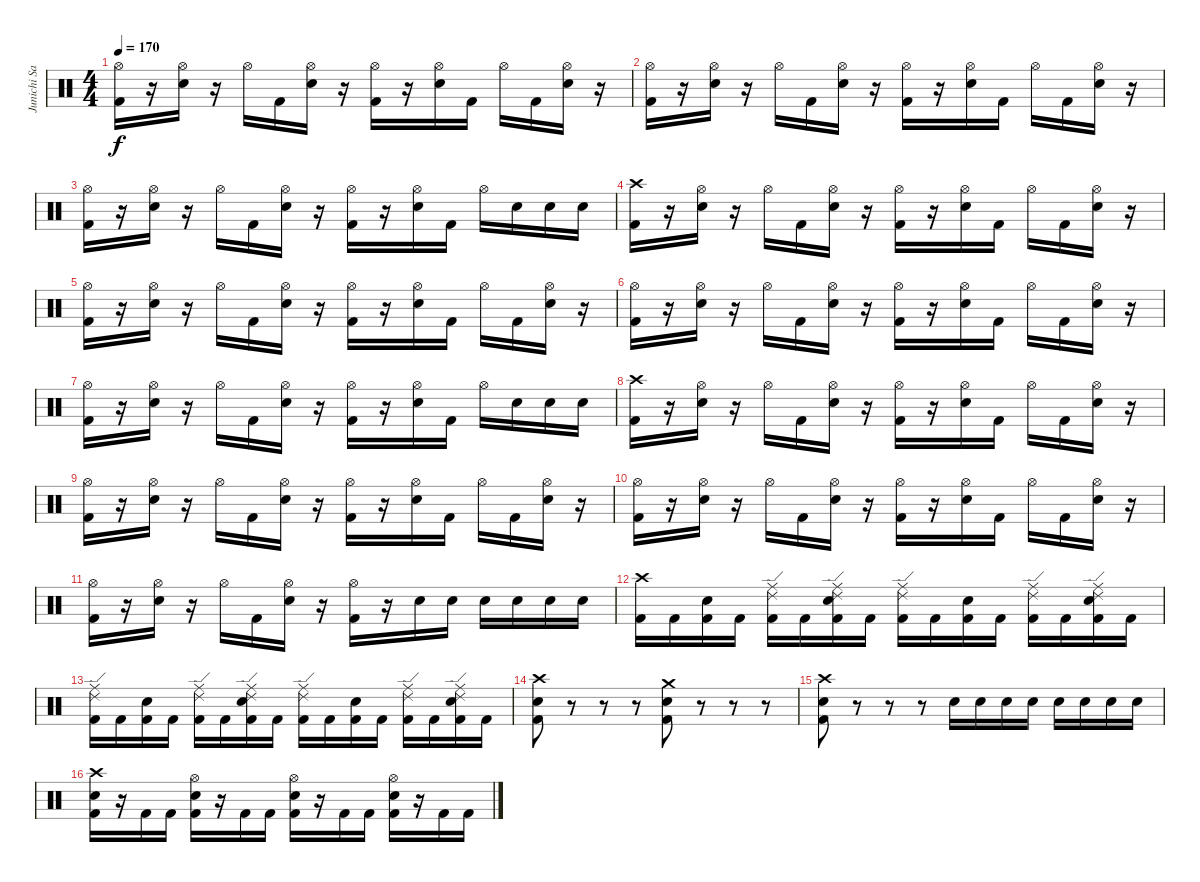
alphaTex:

\track ("Junichi Sato" "Junichi Sa") {instrument percussion}
\staff {score}
\articulation defaults
\ts (4 4)
\tempo 170
\clef neutral
\ks c
("Hi-Hat (open)" "Kick (hit) 2").16{dy f} r.16 ("Hi-Hat (open)" "Electric Snare (hit)").16 r.16 "Hi-Hat (open)".16 "Kick (hit) 2".16 ("Hi-Hat (open)" "Electric Snare (hit)").16 r.16 ("Hi-Hat (open)" "Kick (hit) 2").16 r.16 ("Hi-Hat (open)" "Electric Snare (hit)").16 "Kick (hit) 2".16 "Hi-Hat (open)".16 "Kick (hit) 2".16 ("Hi-Hat (open)" "Electric Snare (hit)").16 r.16 |
("Hi-Hat (open)" "Kick (hit) 2").16 r.16 ("Hi-Hat (open)" "Electric Snare (hit)").16 r.16 "Hi-Hat (open)".16 "Kick (hit) 2".16 ("Hi-Hat (open)" "Electric Snare (hit)").16 r.16 ("Hi-Hat (open)" "Kick (hit) 2").16 r.16 ("Hi-Hat (open)" "Electric Snare (hit)").16 "Kick (hit) 2".16 "Hi-Hat (open)".16 "Kick (hit) 2".16 ("Hi-Hat (open)" "Electric Snare (hit)").16 r.16 |
("Hi-Hat (open)" "Kick (hit) 2").16 r.16 ("Hi-Hat (open)" "Electric Snare (hit)").16 r.16 "Hi-Hat (open)".16 "Kick (hit) 2".16 ("Hi-Hat (open)" "Electric Snare (hit)").16 r.16 ("Hi-Hat (open)" "Kick (hit) 2").16 r.16 ("Hi-Hat (open)" "Electric Snare (hit)").16 "Kick (hit) 2".16 "Hi-Hat (open)".16 "Electric Snare (hit)".16 "Electric Snare (hit)".16 "Electric Snare (hit)".16 |
("Crash high (hit)" "Kick (hit) 2").16 r.16 ("Hi-Hat (open)" "Electric Snare (hit)").16 r.16 "Hi-Hat (open)".16 "Kick (hit) 2".16 ("Hi-Hat (open)" "Electric Snare (hit)").16 r.16 ("Hi-Hat (open)" "Kick (hit) 2").16 r.16 ("Hi-Hat (open)" "Electric Snare (hit)").16 "Kick (hit) 2".16 "Hi-Hat (open)".16 "Kick (hit) 2".16 ("Hi-Hat (open)" "Electric Snare (hit)").16 r.16 |
("Hi-Hat (open)" "Kick (hit) 2").16 r.16 ("Hi-Hat (open)" "Electric Snare (hit)").16 r.16 "Hi-Hat (open)".16 "Kick (hit) 2".16 ("Hi-Hat (open)" "Electric Snare (hit)").16 r.16 ("Hi-Hat (open)" "Kick (hit) 2").16 r.16 ("Hi-Hat (open)" "Electric Snare (hit)").16 "Kick (hit) 2".16 "Hi-Hat (open)".16 "Kick (hit) 2".16 ("Hi-Hat (open)" "Electric Snare (hit)").16 r.16 |
("Hi-Hat (open)" "Kick (hit) 2").16 r.16 ("Hi-Hat (open)" "Electric Snare (hit)").16 r.16 "Hi-Hat (open)".16 "Kick (hit) 2".16 ("Hi-Hat (open)" "Electric Snare (hit)").16 r.16 ("Hi-Hat (open)" "Kick (hit) 2").16 r.16 ("Hi-Hat (open)" "Electric Snare (hit)").16 "Kick (hit) 2".16 "Hi-Hat (open)".16 "Kick (hit) 2".16 ("Hi-Hat (open)" "Electric Snare (hit)").16 r.16 |
("Hi-Hat (open)" "Kick (hit) 2").16 r.16 ("Hi-Hat (open)" "Electric Snare (hit)").16 r.16 "Hi-Hat (open)".16 "Kick (hit) 2".16 ("Hi-Hat (open)" "Electric Snare (hit)").16 r.16 ("Hi-Hat (open)" "Kick (hit) 2").16 r.16 ("Hi-Hat (open)" "Electric Snare (hit)").16 "Kick (hit) 2".16 "Hi-Hat (open)".16 "Electric Snare (hit)".16 "Electric Snare (hit)".16 "Electric Snare (hit)".16 |
("Crash high (hit)" "Kick (hit) 2").16 r.16 ("Hi-Hat (open)" "Electric Snare (hit)").16 r.16 "Hi-Hat (open)".16 "Kick (hit) 2".16 ("Hi-Hat (open)" "Electric Snare (hit)").16 r.16 ("Hi-Hat (open)" "Kick (hit) 2").16 r.16 ("Hi-Hat (open)" "Electric Snare (hit)").16 "Kick (hit) 2".16 "Hi-Hat (open)".16 "Kick (hit) 2".16 ("Hi-Hat (open)" "Electric Snare (hit)").16 r.16 |
("Hi-Hat (open)" "Kick (hit) 2").16 r.16 ("Hi-Hat (open)" "Electric Snare (hit)").16 r.16 "Hi-Hat (open)".16 "Kick (hit) 2".16 ("Hi-Hat (open)" "Electric Snare (hit)").16 r.16 ("Hi-Hat (open)" "Kick (hit) 2").16 r.16 ("Hi-Hat (open)" "Electric Snare (hit)").16 "Kick (hit) 2".16 "Hi-Hat (open)".16 "Kick (hit) 2".16 ("Hi-Hat (open)" "Electric Snare (hit)").16 r.16 |
("Hi-Hat (open)" "Kick (hit) 2").16 r.16 ("Hi-Hat (open)" "Electric Snare (hit)").16 r.16 "Hi-Hat (open)".16 "Kick (hit) 2".16 ("Hi-Hat (open)" "Electric Snare (hit)").16 r.16 ("Hi-Hat (open)" "Kick (hit) 2").16 r.16 ("Hi-Hat (open)" "Electric Snare (hit)").16 "Kick (hit) 2".16 "Hi-Hat (open)".16 "Kick (hit) 2".16 ("Hi-Hat (open)" "Electric Snare (hit)").16 r.16 |
("Hi-Hat (open)" "Kick (hit) 2").16 r.16 ("Hi-Hat (open)" "Electric Snare (hit)").16 r.16 "Hi-Hat (open)".16 "Kick (hit) 2".16 ("Hi-Hat (open)" "Electric Snare (hit)").16 r.16 ("Hi-Hat (open)" "Kick (hit) 2").16 r.16 "Electric Snare (hit)".16 "Electric Snare (hit)".16 "Electric Snare (hit)".16 "Electric Snare (hit)".16 "Electric Snare (hit)".16 "Electric Snare (hit)".16 |
("Crash high (hit)" "Kick (hit) 2").16 "Kick (hit) 2".16 ("Electric Snare (hit)" "Kick (hit) 2").16 "Kick (hit) 2".16 ("Ride (edge) 2" "Ride (middle)" "Kick (hit) 2").16 "Kick (hit) 2".16 ("Ride (edge) 2" "Ride (middle)" "Electric Snare (hit)" "Kick (hit) 2").16 "Kick (hit) 2".16 ("Ride (edge) 2" "Ride (middle)" "Kick (hit) 2").16 "Kick (hit) 2".16 ("Electric Snare (hit)" "Kick (hit) 2").16 "Kick (hit) 2".16 ("Ride (edge) 2" "Ride (middle)" "Kick (hit) 2").16 "Kick (hit) 2".16 ("Ride (edge) 2" "Ride (middle)" "Electric Snare (hit)" "Kick (hit) 2").16 "Kick (hit) 2".16 |
("Ride (edge) 2" "Ride (middle)" "Kick (hit) 2").16 "Kick (hit) 2".16 ("Electric Snare (hit)" "Kick (hit) 2").16 "Kick (hit) 2".16 ("Ride (edge) 2" "Ride (middle)" "Kick (hit) 2").16 "Kick (hit) 2".16 ("Ride (edge) 2" "Ride (middle)" "Electric Snare (hit)" "Kick (hit) 2").16 "Kick (hit) 2".16 ("Ride (edge) 2" "Ride (middle)" "Kick (hit) 2").16 "Kick (hit) 2".16 ("Electric Snare (hit)" "Kick (hit) 2").16 "Kick (hit) 2".16 ("Ride (edge) 2" "Ride (middle)" "Kick (hit) 2").16 "Kick (hit) 2".16 ("Ride (edge) 2" "Ride (middle)" "Electric Snare (hit)" "Kick (hit) 2").16 "Kick (hit) 2".16 |
("Crash high (hit)" "Electric Snare (hit)" "Kick (hit) 2").8 r.8 r.8 r.8 ("Crash medium (hit)" "Electric Snare (hit)" "Kick (hit) 2").8 r.8 r.8 r.8 |
("Crash high (hit)" "Electric Snare (hit)" "Kick (hit) 2").8 r.8 r.8 r.8 "Electric Snare (hit)".16 "Electric Snare (hit)".16 "Electric Snare (hit)".16 "Electric Snare (hit)".16 "Electric Snare (hit)".16 "Electric Snare (hit)".16 "Electric Snare (hit)".16 "Electric Snare (hit)".16 |
("Crash high (hit)" "Electric Snare (hit)" "Kick (hit) 2").16 r.16 "Kick (hit) 2".16 "Kick (hit) 2".16 ("Hi-Hat (open)" "Electric Snare (hit)" "Kick (hit) 2").16 r.16 "Kick (hit) 2".16 "Kick (hit) 2".16 ("Hi-Hat (open)" "Electric Snare (hit)" "Kick (hit) 2").16 r.16 "Kick (hit) 2".16 "Kick (hit) 2".16 ("Hi-Hat (open)" "Electric Snare (hit)" "Kick (hit) 2").16 r.16 "Kick (hit) 2".16 "Kick (hit) 2".16
